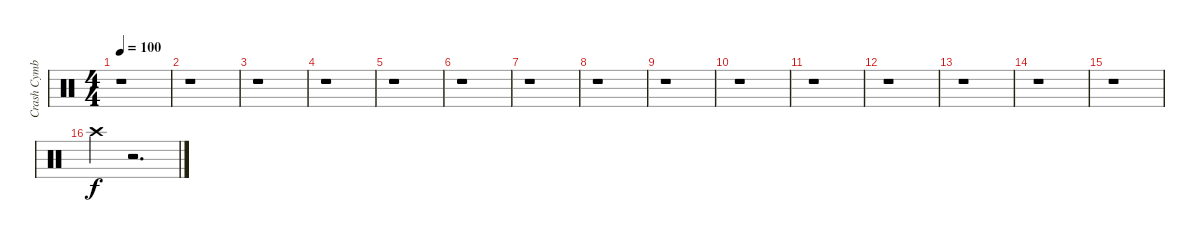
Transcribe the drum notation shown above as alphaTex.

\track ("Crash Cymbal" "Crash Cymb") {instrument percussion}
\staff {score}
\articulation defaults
\ts (4 4)
\tempo 100
\clef neutral
\ks c
r.1{dy f} |
r.1 |
r.1 |
r.1 |
r.1 |
r.1 |
r.1 |
r.1 |
r.1 |
r.1 |
r.1 |
r.1 |
r.1 |
r.1 |
r.1 |
"Crash high (hit)".4 r.2{d}
